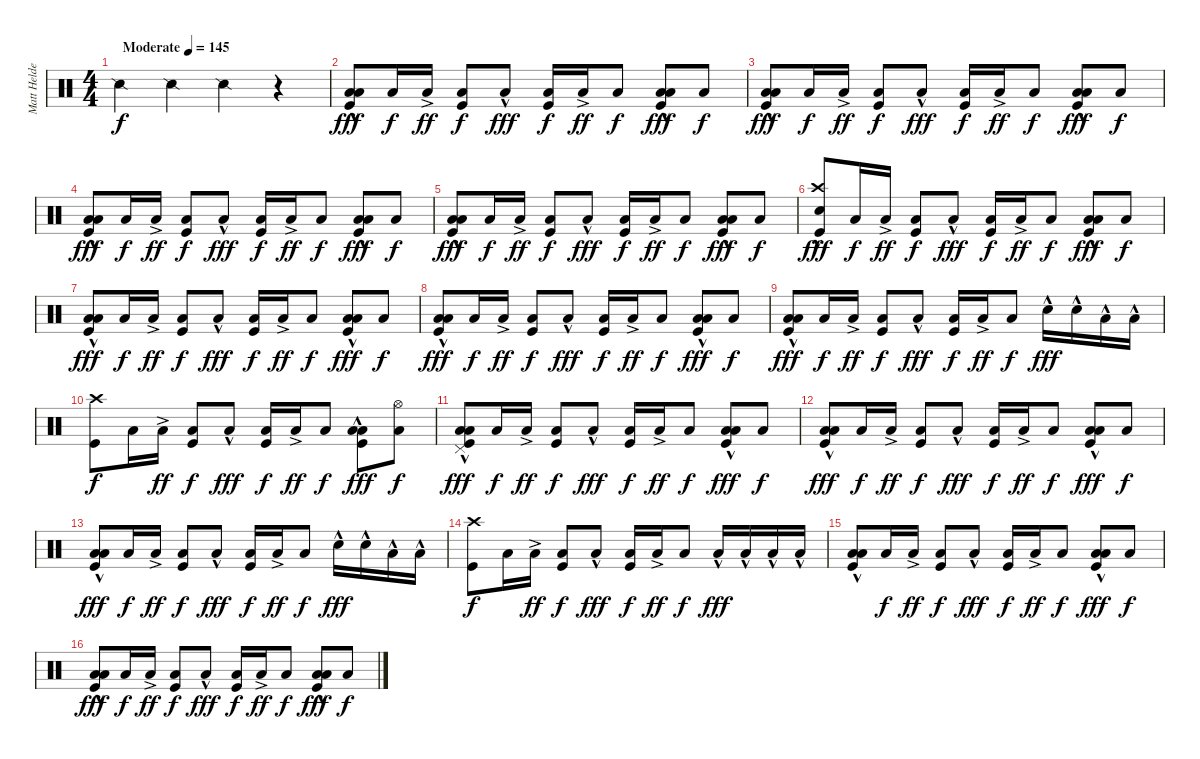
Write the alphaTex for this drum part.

\track ("Matt Helders - Drums" "Matt Helde") {instrument percussion}
\staff {score}
\articulation defaults
\ts (4 4)
\tempo (145 "Moderate")
\clef neutral
\ks c "Snare (side stick) 2".4{dy f} "Snare (side stick) 2".4 "Snare (side stick) 2".4
r.4 |
("Low Tom (hit)"{hac} "Low Floor Tom (hit)"{hac} "Kick (hit)").8{dy fff} "Low Floor Tom (hit)".16{dy f} "Low Tom (hit)"{ac}.16{dy ff} ("Low Floor Tom (hit)" "Kick (hit)").8{dy f} "Low Floor Tom (hit)"{hac}.8{dy fff} ("Low Floor Tom (hit)" "Kick (hit)").16{dy f} "Low Tom (hit)"{ac}.16{dy ff} "Low Floor Tom (hit)".8{dy f} ("Low Tom (hit)"{hac} "Low Floor Tom (hit)"{hac} "Kick (hit)").8{dy fff} "Low Floor Tom (hit)".8{dy f} |
("Low Tom (hit)"{hac} "Low Floor Tom (hit)"{hac} "Kick (hit)").8{dy fff} "Low Floor Tom (hit)".16{dy f} "Low Tom (hit)"{ac}.16{dy ff} ("Low Floor Tom (hit)" "Kick (hit)").8{dy f} "Low Floor Tom (hit)"{hac}.8{dy fff} ("Low Floor Tom (hit)" "Kick (hit)").16{dy f} "Low Tom (hit)"{ac}.16{dy ff} "Low Floor Tom (hit)".8{dy f} ("Low Tom (hit)"{hac} "Low Floor Tom (hit)"{hac} "Kick (hit)").8{dy fff} "Low Floor Tom (hit)".8{dy f} |
("Low Tom (hit)"{hac} "Low Floor Tom (hit)"{hac} "Kick (hit)").8{dy fff} "Low Floor Tom (hit)".16{dy f} "Low Tom (hit)"{ac}.16{dy ff} ("Low Floor Tom (hit)" "Kick (hit)").8{dy f} "Low Floor Tom (hit)"{hac}.8{dy fff} ("Low Floor Tom (hit)" "Kick (hit)").16{dy f} "Low Tom (hit)"{ac}.16{dy ff} "Low Floor Tom (hit)".8{dy f} ("Low Tom (hit)"{hac} "Low Floor Tom (hit)"{hac} "Kick (hit)").8{dy fff} "Low Floor Tom (hit)".8{dy f} |
("Low Tom (hit)"{hac} "Low Floor Tom (hit)"{hac} "Kick (hit)").8{dy fff} "Low Floor Tom (hit)".16{dy f} "Low Tom (hit)"{ac}.16{dy ff} ("Low Floor Tom (hit)" "Kick (hit)").8{dy f} "Low Floor Tom (hit)"{hac}.8{dy fff} ("Low Floor Tom (hit)" "Kick (hit)").16{dy f} "Low Tom (hit)"{ac}.16{dy ff} "Low Floor Tom (hit)".8{dy f} ("Low Tom (hit)"{hac} "Low Floor Tom (hit)"{hac} "Kick (hit)").8{dy fff} "Low Floor Tom (hit)".8{dy f} |
("Crash high (hit)" "Snare (hit) 2"{hac} "Kick (hit)").8{dy fff} "Low Floor Tom (hit)".16{dy f} "Low Tom (hit)"{ac}.16{dy ff} ("Low Floor Tom (hit)" "Kick (hit)").8{dy f} "Low Floor Tom (hit)"{hac}.8{dy fff} ("Low Floor Tom (hit)" "Kick (hit)").16{dy f} "Low Tom (hit)"{ac}.16{dy ff} "Low Floor Tom (hit)".8{dy f} ("Low Tom (hit)"{hac} "Low Floor Tom (hit)"{hac} "Kick (hit)").8{dy fff} "Low Floor Tom (hit)".8{dy f} |
("Low Tom (hit)"{hac} "Low Floor Tom (hit)"{hac} "Kick (hit)").8{dy fff} "Low Floor Tom (hit)".16{dy f} "Low Tom (hit)"{ac}.16{dy ff} ("Low Floor Tom (hit)" "Kick (hit)").8{dy f} "Low Floor Tom (hit)"{hac}.8{dy fff} ("Low Floor Tom (hit)" "Kick (hit)").16{dy f} "Low Tom (hit)"{ac}.16{dy ff} "Low Floor Tom (hit)".8{dy f} ("Low Tom (hit)"{hac} "Low Floor Tom (hit)"{hac} "Kick (hit)").8{dy fff} "Low Floor Tom (hit)".8{dy f} |
("Low Tom (hit)"{hac} "Low Floor Tom (hit)"{hac} "Kick (hit)").8{dy fff} "Low Floor Tom (hit)".16{dy f} "Low Tom (hit)"{ac}.16{dy ff} ("Low Floor Tom (hit)" "Kick (hit)").8{dy f} "Low Floor Tom (hit)"{hac}.8{dy fff} ("Low Floor Tom (hit)" "Kick (hit)").16{dy f} "Low Tom (hit)"{ac}.16{dy ff} "Low Floor Tom (hit)".8{dy f} ("Low Tom (hit)"{hac} "Low Floor Tom (hit)"{hac} "Kick (hit)").8{dy fff} "Low Floor Tom (hit)".8{dy f} |
("Low Tom (hit)"{hac} "Low Floor Tom (hit)"{hac} "Kick (hit)").8{dy fff} "Low Floor Tom (hit)".16{dy f} "Low Tom (hit)"{ac}.16{dy ff} ("Low Floor Tom (hit)" "Kick (hit)").8{dy f} "Low Floor Tom (hit)"{hac}.8{dy fff} ("Low Floor Tom (hit)" "Kick (hit)").16{dy f} "Low Tom (hit)"{ac}.16{dy ff} "Low Floor Tom (hit)".8{dy f} "Snare (hit) 2"{hac}.16{dy fff} "Snare (hit) 2"{hac}.16 "Low Tom (hit)"{hac}.16 "Low Tom (hit)"{hac}.16 |
("Crash high (hit)" "Kick (hit)").8{dy f} "Low Floor Tom (hit)".16 "Low Tom (hit)"{ac}.16{dy ff} ("Low Floor Tom (hit)" "Kick (hit)").8{dy f} "Low Floor Tom (hit)"{hac}.8{dy fff} ("Low Floor Tom (hit)" "Kick (hit)").16{dy f} "Low Tom (hit)"{ac}.16{dy ff} "Low Floor Tom (hit)".8{dy f} ("Low Tom (hit)"{hac} "Low Floor Tom (hit)"{hac} "Kick (hit)").8{dy fff} ("Hi-Hat (open)" "Low Floor Tom (hit)").8{dy f} |
("Pedal Hi-Hat (hit)" "Low Tom (hit)"{hac} "Low Floor Tom (hit)"{hac} "Kick (hit)").8{dy fff} "Low Floor Tom (hit)".16{dy f} "Low Tom (hit)"{ac}.16{dy ff} ("Low Floor Tom (hit)" "Kick (hit)").8{dy f} "Low Floor Tom (hit)"{hac}.8{dy fff} ("Low Floor Tom (hit)" "Kick (hit)").16{dy f} "Low Tom (hit)"{ac}.16{dy ff} "Low Floor Tom (hit)".8{dy f} ("Low Tom (hit)"{hac} "Low Floor Tom (hit)"{hac} "Kick (hit)").8{dy fff} "Low Floor Tom (hit)".8{dy f} |
("Low Tom (hit)"{hac} "Low Floor Tom (hit)"{hac} "Kick (hit)").8{dy fff} "Low Floor Tom (hit)".16{dy f} "Low Tom (hit)"{ac}.16{dy ff} ("Low Floor Tom (hit)" "Kick (hit)").8{dy f} "Low Floor Tom (hit)"{hac}.8{dy fff} ("Low Floor Tom (hit)" "Kick (hit)").16{dy f} "Low Tom (hit)"{ac}.16{dy ff} "Low Floor Tom (hit)".8{dy f} ("Low Tom (hit)"{hac} "Low Floor Tom (hit)"{hac} "Kick (hit)").8{dy fff} "Low Floor Tom (hit)".8{dy f} |
("Low Tom (hit)"{hac} "Low Floor Tom (hit)"{hac} "Kick (hit)").8{dy fff} "Low Floor Tom (hit)".16{dy f} "Low Tom (hit)"{ac}.16{dy ff} ("Low Floor Tom (hit)" "Kick (hit)").8{dy f} "Low Floor Tom (hit)"{hac}.8{dy fff} ("Low Floor Tom (hit)" "Kick (hit)").16{dy f} "Low Tom (hit)"{ac}.16{dy ff} "Low Floor Tom (hit)".8{dy f} "Snare (hit) 2"{hac}.16{dy fff} "Snare (hit) 2"{hac}.16 "Low Tom (hit)"{hac}.16 "Low Tom (hit)"{hac}.16 |
("Crash high (hit)" "Kick (hit)").8{dy f} "Low Floor Tom (hit)".16 "Low Tom (hit)"{ac}.16{dy ff} ("Low Floor Tom (hit)" "Kick (hit)").8{dy f} "Low Floor Tom (hit)"{hac}.8{dy fff} ("Low Floor Tom (hit)" "Kick (hit)").16{dy f} "Low Tom (hit)"{ac}.16{dy ff} "Low Floor Tom (hit)".8{dy f} "Low Floor Tom (hit)"{hac}.16{dy fff} "Low Floor Tom (hit)"{hac}.16 "Low Floor Tom (hit)"{hac}.16 "Low Floor Tom (hit)"{hac}.16 |
("Low Tom (hit)"{hac} "Low Floor Tom (hit)"{hac} "Kick (hit)").8 "Low Floor Tom (hit)".16{dy f} "Low Tom (hit)"{ac}.16{dy ff} ("Low Floor Tom (hit)" "Kick (hit)").8{dy f} "Low Floor Tom (hit)"{hac}.8{dy fff} ("Low Floor Tom (hit)" "Kick (hit)").16{dy f} "Low Tom (hit)"{ac}.16{dy ff} "Low Floor Tom (hit)".8{dy f} ("Low Tom (hit)"{hac} "Low Floor Tom (hit)"{hac} "Kick (hit)").8{dy fff} "Low Floor Tom (hit)".8{dy f} |
("Low Tom (hit)"{hac} "Low Floor Tom (hit)"{hac} "Kick (hit)").8{dy fff} "Low Floor Tom (hit)".16{dy f} "Low Tom (hit)"{ac}.16{dy ff} ("Low Floor Tom (hit)" "Kick (hit)").8{dy f} "Low Floor Tom (hit)"{hac}.8{dy fff} ("Low Floor Tom (hit)" "Kick (hit)").16{dy f} "Low Tom (hit)"{ac}.16{dy ff} "Low Floor Tom (hit)".8{dy f} ("Low Tom (hit)"{hac} "Low Floor Tom (hit)"{hac} "Kick (hit)").8{dy fff} "Low Floor Tom (hit)".8{dy f}
